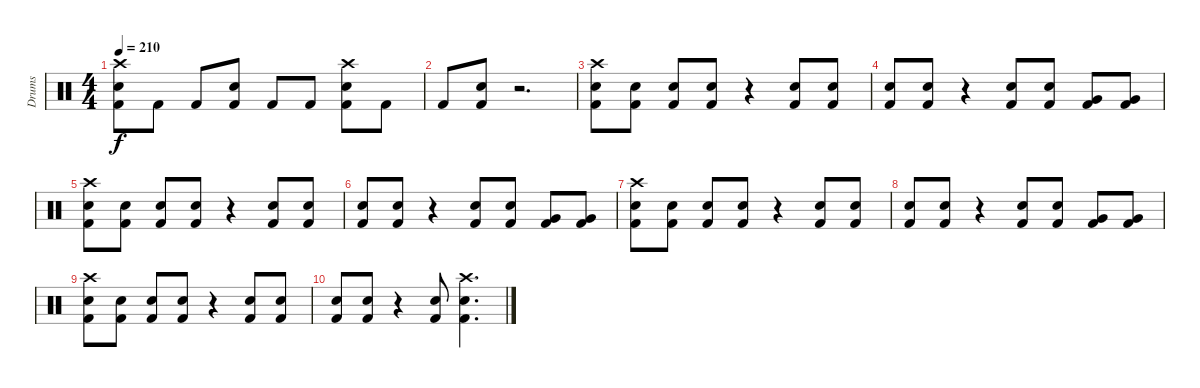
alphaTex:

\track ("Drums" "Drums") {instrument percussion}
\staff {score}
\articulation defaults
\ts (4 4)
\tempo 210
\clef neutral
\ks c
("Crash high (hit)" "Snare (hit) 2" "Kick (hit) 2").8{dy f} "Kick (hit) 2".8 "Kick (hit) 2".8 ("Snare (hit) 2" "Kick (hit) 2").8 "Kick (hit) 2".8 "Kick (hit) 2".8 ("Crash high (hit)" "Snare (hit) 2" "Kick (hit) 2").8 "Kick (hit) 2".8 |
"Kick (hit) 2".8 ("Snare (hit) 2" "Kick (hit) 2").8 r.2{d} |
("Crash high (hit)" "Snare (hit) 2" "Kick (hit) 2").8 ("Snare (hit) 2" "Kick (hit) 2").8 ("Snare (hit) 2" "Kick (hit) 2").8 ("Snare (hit) 2" "Kick (hit) 2").8 r.4 ("Snare (hit) 2" "Kick (hit) 2").8 ("Snare (hit) 2" "Kick (hit) 2").8 |
("Snare (hit) 2" "Kick (hit) 2").8 ("Snare (hit) 2" "Kick (hit) 2").8 r.4 ("Snare (hit) 2" "Kick (hit) 2").8 ("Snare (hit) 2" "Kick (hit) 2").8 ("Very Low Tom (hit)" "Kick (hit) 2").8 ("Very Low Tom (hit)" "Kick (hit) 2").8 |
("Crash high (hit)" "Snare (hit) 2" "Kick (hit) 2").8 ("Snare (hit) 2" "Kick (hit) 2").8 ("Snare (hit) 2" "Kick (hit) 2").8 ("Snare (hit) 2" "Kick (hit) 2").8 r.4 ("Snare (hit) 2" "Kick (hit) 2").8 ("Snare (hit) 2" "Kick (hit) 2").8 |
("Snare (hit) 2" "Kick (hit) 2").8 ("Snare (hit) 2" "Kick (hit) 2").8 r.4 ("Snare (hit) 2" "Kick (hit) 2").8 ("Snare (hit) 2" "Kick (hit) 2").8 ("Very Low Tom (hit)" "Kick (hit) 2").8 ("Very Low Tom (hit)" "Kick (hit) 2").8 |
("Crash high (hit)" "Snare (hit) 2" "Kick (hit) 2").8 ("Snare (hit) 2" "Kick (hit) 2").8 ("Snare (hit) 2" "Kick (hit) 2").8 ("Snare (hit) 2" "Kick (hit) 2").8 r.4 ("Snare (hit) 2" "Kick (hit) 2").8 ("Snare (hit) 2" "Kick (hit) 2").8 |
("Snare (hit) 2" "Kick (hit) 2").8 ("Snare (hit) 2" "Kick (hit) 2").8 r.4 ("Snare (hit) 2" "Kick (hit) 2").8 ("Snare (hit) 2" "Kick (hit) 2").8 ("Very Low Tom (hit)" "Kick (hit) 2").8 ("Very Low Tom (hit)" "Kick (hit) 2").8 |
("Crash high (hit)" "Snare (hit) 2" "Kick (hit) 2").8 ("Snare (hit) 2" "Kick (hit) 2").8 ("Snare (hit) 2" "Kick (hit) 2").8 ("Snare (hit) 2" "Kick (hit) 2").8 r.4 ("Snare (hit) 2" "Kick (hit) 2").8 ("Snare (hit) 2" "Kick (hit) 2").8 |
("Snare (hit) 2" "Kick (hit) 2").8 ("Snare (hit) 2" "Kick (hit) 2").8 r.4 ("Snare (hit) 2" "Kick (hit) 2").8 ("Crash high (hit)" "Snare (hit) 2" "Kick (hit) 2").4{d}
